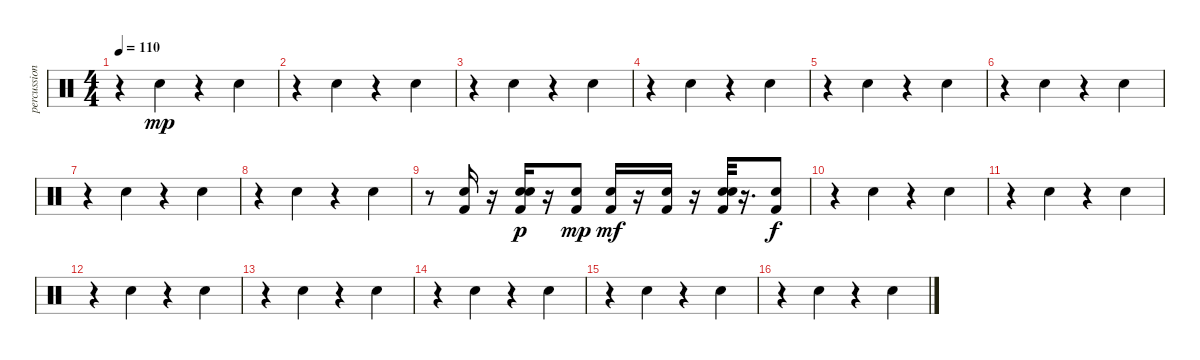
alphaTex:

\track ("percussions 3" "percussion") {instrument percussion}
\staff {score}
\articulation defaults
\ts (4 4)
\tempo 110
\clef neutral
\ks c
r.4{dy mp} "Electric Snare (hit)".4 r.4 "Electric Snare (hit)".4 |
r.4 "Electric Snare (hit)".4 r.4 "Electric Snare (hit)".4 |
r.4 "Electric Snare (hit)".4 r.4 "Electric Snare (hit)".4 |
r.4 "Electric Snare (hit)".4 r.4 "Electric Snare (hit)".4 |
r.4 "Electric Snare (hit)".4 r.4 "Electric Snare (hit)".4 |
r.4 "Electric Snare (hit)".4 r.4 "Electric Snare (hit)".4 |
r.4 "Electric Snare (hit)".4 r.4 "Electric Snare (hit)".4 |
r.4 "Electric Snare (hit)".4 r.4 "Electric Snare (hit)".4 |
r.8 ("Kick (hit) 2" "Electric Snare (hit)").16 r.16 ("Electric Snare (hit)" "Kick (hit) 2" "Electric Snare (hit)").16{dy p} r.16 ("Kick (hit) 2" "Electric Snare (hit)").8{dy mp} ("Kick (hit) 2" "Electric Snare (hit)").16{dy mf} r.16 ("Kick (hit) 2" "Electric Snare (hit)").16 r.16 ("Electric Snare (hit)" "Kick (hit) 2" "Electric Snare (hit)").32 r.16{d} ("Kick (hit) 2" "Electric Snare (hit)").8{dy f} |
r.4 "Electric Snare (hit)".4 r.4 "Electric Snare (hit)".4 |
r.4 "Electric Snare (hit)".4 r.4 "Electric Snare (hit)".4 |
r.4 "Electric Snare (hit)".4 r.4 "Electric Snare (hit)".4 |
r.4 "Electric Snare (hit)".4 r.4 "Electric Snare (hit)".4 |
r.4 "Electric Snare (hit)".4 r.4 "Electric Snare (hit)".4 |
r.4 "Electric Snare (hit)".4 r.4 "Electric Snare (hit)".4 |
r.4 "Electric Snare (hit)".4 r.4 "Electric Snare (hit)".4
